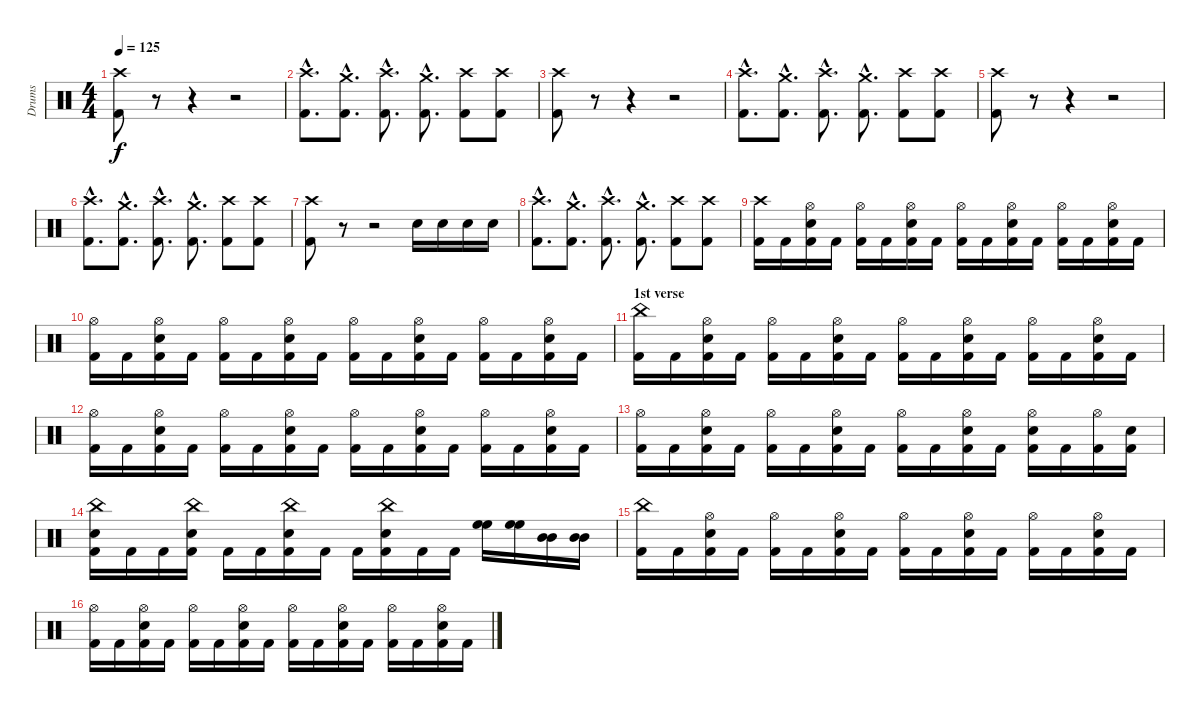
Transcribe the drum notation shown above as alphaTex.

\track ("Drums" "Drums") {instrument percussion}
\staff {score}
\articulation defaults
\ts (4 4)
\tempo 125
\clef neutral
\ks c
("Crash high (hit)" "Kick (hit) 2").8{dy f} r.8 r.4 r.2 |
("Crash high (hit)"{hac} "Kick (hit) 2"{hac}).8{d} ("Crash medium (hit)"{hac} "Kick (hit) 2"{hac}).8{d} ("Crash high (hit)"{hac} "Kick (hit) 2"{hac}).8{d} ("Crash medium (hit)"{hac} "Kick (hit) 2"{hac}).8{d} ("Crash high (hit)" "Kick (hit) 2").8 ("Crash high (hit)" "Kick (hit) 2").8 |
("Crash high (hit)" "Kick (hit) 2").8 r.8 r.4 r.2 |
("Crash high (hit)"{hac} "Kick (hit) 2"{hac}).8{d} ("Crash medium (hit)"{hac} "Kick (hit) 2"{hac}).8{d} ("Crash high (hit)"{hac} "Kick (hit) 2"{hac}).8{d} ("Crash medium (hit)"{hac} "Kick (hit) 2"{hac}).8{d} ("Crash high (hit)" "Kick (hit) 2").8 ("Crash high (hit)" "Kick (hit) 2").8 |
("Crash high (hit)" "Kick (hit) 2").8 r.8 r.4 r.2 |
("Crash high (hit)"{hac} "Kick (hit) 2"{hac}).8{d} ("Crash medium (hit)"{hac} "Kick (hit) 2"{hac}).8{d} ("Crash high (hit)"{hac} "Kick (hit) 2"{hac}).8{d} ("Crash medium (hit)"{hac} "Kick (hit) 2"{hac}).8{d} ("Crash high (hit)" "Kick (hit) 2").8 ("Crash high (hit)" "Kick (hit) 2").8 |
("Crash high (hit)" "Kick (hit) 2").8 r.8 r.2 "Snare (hit) 2".16 "Snare (hit) 2".16 "Snare (hit) 2".16 "Snare (hit) 2".16 |
("Crash high (hit)"{hac} "Kick (hit) 2"{hac}).8{d} ("Crash medium (hit)"{hac} "Kick (hit) 2"{hac}).8{d} ("Crash high (hit)"{hac} "Kick (hit) 2"{hac}).8{d} ("Crash medium (hit)"{hac} "Kick (hit) 2"{hac}).8{d} ("Crash high (hit)" "Kick (hit) 2").8 ("Crash high (hit)" "Kick (hit) 2").8 |
("Crash high (hit)" "Kick (hit) 2").16 "Kick (hit) 2".16 ("Hi-Hat (open)" "Snare (hit) 2" "Kick (hit) 2").16 "Kick (hit) 2".16 ("Hi-Hat (open)" "Kick (hit) 2").16 "Kick (hit) 2".16 ("Hi-Hat (open)" "Snare (hit) 2" "Kick (hit) 2").16 "Kick (hit) 2".16 ("Hi-Hat (open)" "Kick (hit) 2").16 "Kick (hit) 2".16 ("Hi-Hat (open)" "Snare (hit) 2" "Kick (hit) 2").16 "Kick (hit) 2".16 ("Hi-Hat (open)" "Kick (hit) 2").16 "Kick (hit) 2".16 ("Hi-Hat (open)" "Snare (hit) 2" "Kick (hit) 2").16 "Kick (hit) 2".16 |
("Hi-Hat (open)" "Kick (hit) 2").16 "Kick (hit) 2".16 ("Hi-Hat (open)" "Snare (hit) 2" "Kick (hit) 2").16 "Kick (hit) 2".16 ("Hi-Hat (open)" "Kick (hit) 2").16 "Kick (hit) 2".16 ("Hi-Hat (open)" "Snare (hit) 2" "Kick (hit) 2").16 "Kick (hit) 2".16 ("Hi-Hat (open)" "Kick (hit) 2").16 "Kick (hit) 2".16 ("Hi-Hat (open)" "Snare (hit) 2" "Kick (hit) 2").16 "Kick (hit) 2".16 ("Hi-Hat (open)" "Kick (hit) 2").16 "Kick (hit) 2".16 ("Hi-Hat (open)" "Snare (hit) 2" "Kick (hit) 2").16 "Kick (hit) 2".16 |
\section ("" "1st verse")
("China (hit)" "Kick (hit) 2").16 "Kick (hit) 2".16 ("Hi-Hat (open)" "Snare (hit) 2" "Kick (hit) 2").16 "Kick (hit) 2".16 ("Hi-Hat (open)" "Kick (hit) 2").16 "Kick (hit) 2".16 ("Hi-Hat (open)" "Snare (hit) 2" "Kick (hit) 2").16 "Kick (hit) 2".16 ("Hi-Hat (open)" "Kick (hit) 2").16 "Kick (hit) 2".16 ("Hi-Hat (open)" "Snare (hit) 2" "Kick (hit) 2").16 "Kick (hit) 2".16 ("Hi-Hat (open)" "Kick (hit) 2").16 "Kick (hit) 2".16 ("Hi-Hat (open)" "Snare (hit) 2" "Kick (hit) 2").16 "Kick (hit) 2".16 |
("Hi-Hat (open)" "Kick (hit) 2").16 "Kick (hit) 2".16 ("Hi-Hat (open)" "Snare (hit) 2" "Kick (hit) 2").16 "Kick (hit) 2".16 ("Hi-Hat (open)" "Kick (hit) 2").16 "Kick (hit) 2".16 ("Hi-Hat (open)" "Snare (hit) 2" "Kick (hit) 2").16 "Kick (hit) 2".16 ("Hi-Hat (open)" "Kick (hit) 2").16 "Kick (hit) 2".16 ("Hi-Hat (open)" "Snare (hit) 2" "Kick (hit) 2").16 "Kick (hit) 2".16 ("Hi-Hat (open)" "Kick (hit) 2").16 "Kick (hit) 2".16 ("Hi-Hat (open)" "Snare (hit) 2" "Kick (hit) 2").16 "Kick (hit) 2".16 |
("Hi-Hat (open)" "Kick (hit) 2").16 "Kick (hit) 2".16 ("Hi-Hat (open)" "Snare (hit) 2" "Kick (hit) 2").16 "Kick (hit) 2".16 ("Hi-Hat (open)" "Kick (hit) 2").16 "Kick (hit) 2".16 ("Hi-Hat (open)" "Snare (hit) 2" "Kick (hit) 2").16 "Kick (hit) 2".16 ("Hi-Hat (open)" "Kick (hit) 2").16 "Kick (hit) 2".16 ("Hi-Hat (open)" "Snare (hit) 2" "Kick (hit) 2").16 "Kick (hit) 2".16 ("Hi-Hat (open)" "Snare (hit) 2" "Kick (hit) 2").16 "Kick (hit) 2".16 ("Hi-Hat (open)" "Kick (hit) 2").16 ("Snare (hit) 2" "Kick (hit) 2").16 |
("China (hit)" "Snare (hit) 2" "Kick (hit) 2").16 "Kick (hit) 2".16 "Kick (hit) 2".16 ("China (hit)" "Snare (hit) 2" "Kick (hit) 2").16 "Kick (hit) 2".16 "Kick (hit) 2".16 ("China (hit)" "Snare (hit) 2" "Kick (hit) 2").16 "Kick (hit) 2".16 "Kick (hit) 2".16 ("China (hit)" "Snare (hit) 2" "Kick (hit) 2").16 "Kick (hit) 2".16 "Kick (hit) 2".16 ("High Floor Tom (hit)" "High Floor Tom (hit)").16 ("High Floor Tom (hit)" "High Floor Tom (hit)").16 ("Mid Tom (hit)" "Mid Tom (hit)").16 ("Mid Tom (hit)" "Mid Tom (hit)").16 |
("China (hit)" "Kick (hit) 2").16 "Kick (hit) 2".16 ("Hi-Hat (open)" "Snare (hit) 2" "Kick (hit) 2").16 "Kick (hit) 2".16 ("Hi-Hat (open)" "Kick (hit) 2").16 "Kick (hit) 2".16 ("Hi-Hat (open)" "Snare (hit) 2" "Kick (hit) 2").16 "Kick (hit) 2".16 ("Hi-Hat (open)" "Kick (hit) 2").16 "Kick (hit) 2".16 ("Hi-Hat (open)" "Snare (hit) 2" "Kick (hit) 2").16 "Kick (hit) 2".16 ("Hi-Hat (open)" "Kick (hit) 2").16 "Kick (hit) 2".16 ("Hi-Hat (open)" "Snare (hit) 2" "Kick (hit) 2").16 "Kick (hit) 2".16 |
("Hi-Hat (open)" "Kick (hit) 2").16 "Kick (hit) 2".16 ("Hi-Hat (open)" "Snare (hit) 2" "Kick (hit) 2").16 "Kick (hit) 2".16 ("Hi-Hat (open)" "Kick (hit) 2").16 "Kick (hit) 2".16 ("Hi-Hat (open)" "Snare (hit) 2" "Kick (hit) 2").16 "Kick (hit) 2".16 ("Hi-Hat (open)" "Kick (hit) 2").16 "Kick (hit) 2".16 ("Hi-Hat (open)" "Snare (hit) 2" "Kick (hit) 2").16 "Kick (hit) 2".16 ("Hi-Hat (open)" "Kick (hit) 2").16 "Kick (hit) 2".16 ("Hi-Hat (open)" "Snare (hit) 2" "Kick (hit) 2").16 "Kick (hit) 2".16
